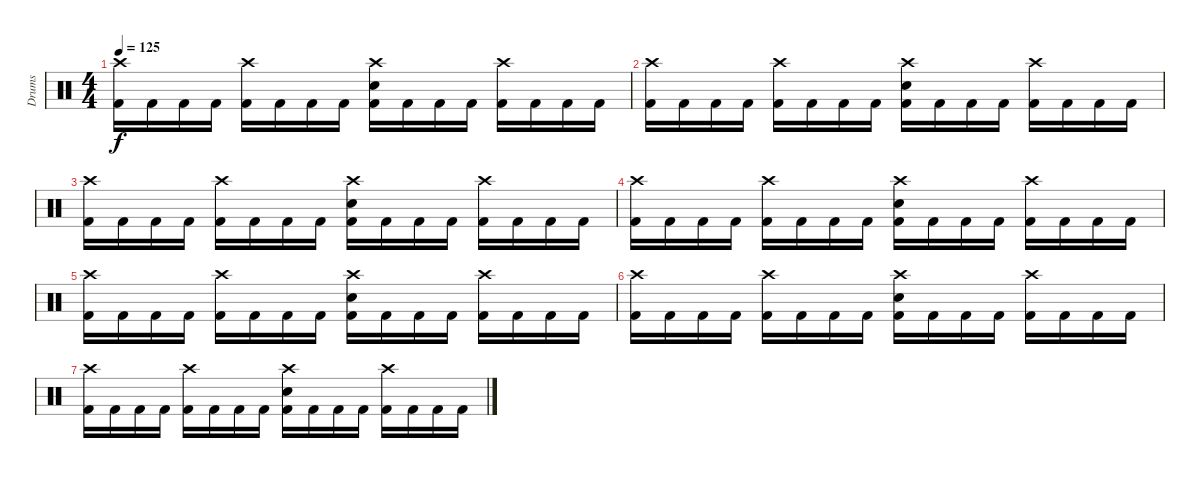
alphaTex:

\track ("Drums" "Drums") {instrument percussion}
\staff
\articulation defaults
\ts (4 4)
\tempo 125
\clef neutral
\ks c
("Crash high (hit)" "Kick (hit) 2").16{dy f} "Kick (hit) 2".16 "Kick (hit) 2".16 "Kick (hit) 2".16 ("Crash high (hit)" "Kick (hit) 2").16 "Kick (hit) 2".16 "Kick (hit) 2".16 "Kick (hit) 2".16 ("Crash high (hit)" "Electric Snare (hit)" "Kick (hit) 2").16 "Kick (hit) 2".16 "Kick (hit) 2".16 "Kick (hit) 2".16 ("Crash high (hit)" "Kick (hit) 2").16 "Kick (hit) 2".16 "Kick (hit) 2".16 "Kick (hit) 2".16 |
("Crash high (hit)" "Kick (hit) 2").16 "Kick (hit) 2".16 "Kick (hit) 2".16 "Kick (hit) 2".16 ("Crash high (hit)" "Kick (hit) 2").16 "Kick (hit) 2".16 "Kick (hit) 2".16 "Kick (hit) 2".16 ("Crash high (hit)" "Electric Snare (hit)" "Kick (hit) 2").16 "Kick (hit) 2".16 "Kick (hit) 2".16 "Kick (hit) 2".16 ("Crash high (hit)" "Kick (hit) 2").16 "Kick (hit) 2".16 "Kick (hit) 2".16 "Kick (hit) 2".16 |
("Crash high (hit)" "Kick (hit) 2").16 "Kick (hit) 2".16 "Kick (hit) 2".16 "Kick (hit) 2".16 ("Crash high (hit)" "Kick (hit) 2").16 "Kick (hit) 2".16 "Kick (hit) 2".16 "Kick (hit) 2".16 ("Crash high (hit)" "Electric Snare (hit)" "Kick (hit) 2").16 "Kick (hit) 2".16 "Kick (hit) 2".16 "Kick (hit) 2".16 ("Crash high (hit)" "Kick (hit) 2").16 "Kick (hit) 2".16 "Kick (hit) 2".16 "Kick (hit) 2".16 |
("Crash high (hit)" "Kick (hit) 2").16 "Kick (hit) 2".16 "Kick (hit) 2".16 "Kick (hit) 2".16 ("Crash high (hit)" "Kick (hit) 2").16 "Kick (hit) 2".16 "Kick (hit) 2".16 "Kick (hit) 2".16 ("Crash high (hit)" "Electric Snare (hit)" "Kick (hit) 2").16 "Kick (hit) 2".16 "Kick (hit) 2".16 "Kick (hit) 2".16 ("Crash high (hit)" "Kick (hit) 2").16 "Kick (hit) 2".16 "Kick (hit) 2".16 "Kick (hit) 2".16 |
("Crash high (hit)" "Kick (hit) 2").16 "Kick (hit) 2".16 "Kick (hit) 2".16 "Kick (hit) 2".16 ("Crash high (hit)" "Kick (hit) 2").16 "Kick (hit) 2".16 "Kick (hit) 2".16 "Kick (hit) 2".16 ("Crash high (hit)" "Electric Snare (hit)" "Kick (hit) 2").16 "Kick (hit) 2".16 "Kick (hit) 2".16 "Kick (hit) 2".16 ("Crash high (hit)" "Kick (hit) 2").16 "Kick (hit) 2".16 "Kick (hit) 2".16 "Kick (hit) 2".16 |
("Crash high (hit)" "Kick (hit) 2").16 "Kick (hit) 2".16 "Kick (hit) 2".16 "Kick (hit) 2".16 ("Crash high (hit)" "Kick (hit) 2").16 "Kick (hit) 2".16 "Kick (hit) 2".16 "Kick (hit) 2".16 ("Crash high (hit)" "Electric Snare (hit)" "Kick (hit) 2").16 "Kick (hit) 2".16 "Kick (hit) 2".16 "Kick (hit) 2".16 ("Crash high (hit)" "Kick (hit) 2").16 "Kick (hit) 2".16 "Kick (hit) 2".16 "Kick (hit) 2".16 |
("Crash high (hit)" "Kick (hit) 2").16 "Kick (hit) 2".16 "Kick (hit) 2".16 "Kick (hit) 2".16 ("Crash high (hit)" "Kick (hit) 2").16 "Kick (hit) 2".16 "Kick (hit) 2".16 "Kick (hit) 2".16 ("Crash high (hit)" "Electric Snare (hit)" "Kick (hit) 2").16 "Kick (hit) 2".16 "Kick (hit) 2".16 "Kick (hit) 2".16 ("Crash high (hit)" "Kick (hit) 2").16 "Kick (hit) 2".16 "Kick (hit) 2".16 "Kick (hit) 2".16
